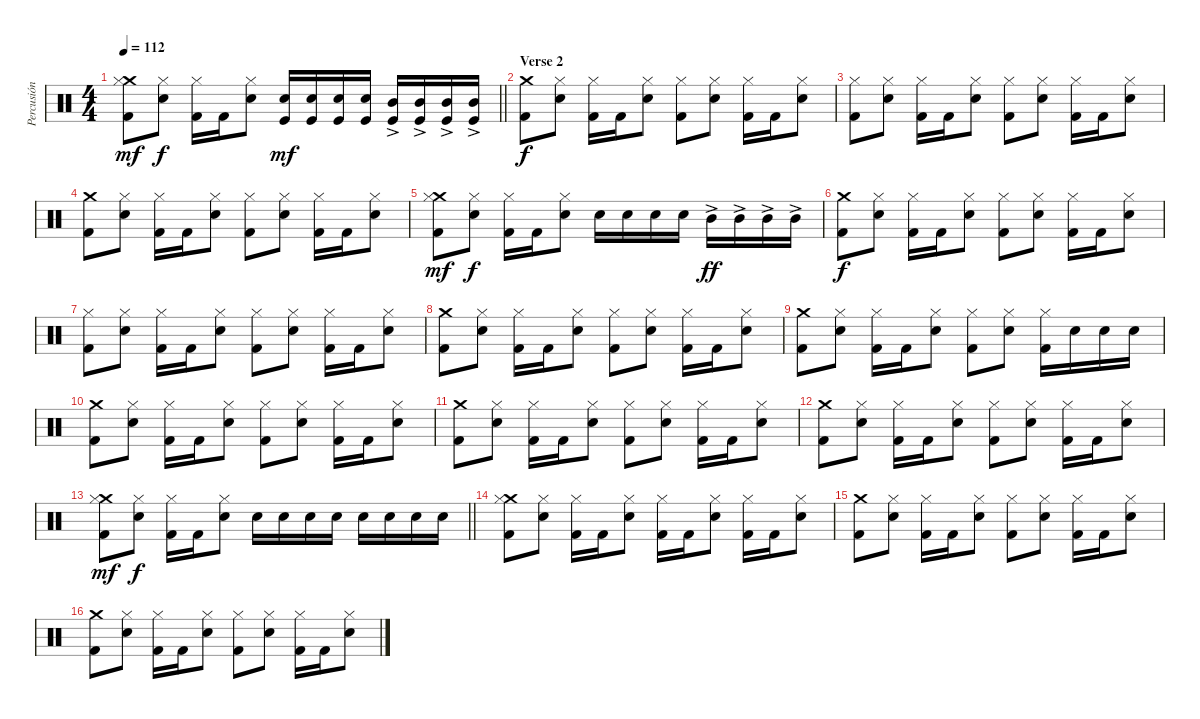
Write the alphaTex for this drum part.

\track ("Percusión" "Percusión") {instrument percussion}
\staff {score}
\articulation defaults
\ts (4 4)
\tempo 112
\clef neutral
\barLineRight lightlight
\ks c
("Crash medium (hit)" "Hi-Hat (closed)" "Kick (hit) 2").8{dy mf} ("Hi-Hat (closed)" "Electric Snare (hit)").8{dy f} ("Hi-Hat (closed)" "Kick (hit) 2").16 "Kick (hit) 2".16 ("Hi-Hat (closed)" "Electric Snare (hit)").8 ("Electric Snare (hit)" "Kick (hit)").16{dy mf} ("Electric Snare (hit)" "Kick (hit)").16 ("Electric Snare (hit)" "Kick (hit)").16 ("Electric Snare (hit)" "Kick (hit)").16 ("Mid Tom (hit)"{ac} "Kick (hit)").16 ("Mid Tom (hit)"{ac} "Kick (hit)").16 ("Mid Tom (hit)"{ac} "Kick (hit)").16 ("Mid Tom (hit)"{ac} "Kick (hit)").16 |
\section ("" "Verse 2")
("Crash medium (hit)" "Kick (hit) 2").8{dy f} ("Hi-Hat (closed)" "Electric Snare (hit)").8 ("Hi-Hat (closed)" "Kick (hit) 2").16 "Kick (hit) 2".16 ("Hi-Hat (closed)" "Electric Snare (hit)").8 ("Hi-Hat (closed)" "Kick (hit) 2").8 ("Hi-Hat (closed)" "Electric Snare (hit)").8 ("Hi-Hat (closed)" "Kick (hit) 2").16 "Kick (hit) 2".16 ("Hi-Hat (closed)" "Electric Snare (hit)").8 |
("Hi-Hat (closed)" "Kick (hit) 2").8 ("Hi-Hat (closed)" "Electric Snare (hit)").8 ("Hi-Hat (closed)" "Kick (hit) 2").16 "Kick (hit) 2".16 ("Hi-Hat (closed)" "Electric Snare (hit)").8 ("Hi-Hat (closed)" "Kick (hit) 2").8 ("Hi-Hat (closed)" "Electric Snare (hit)").8 ("Hi-Hat (closed)" "Kick (hit) 2").16 "Kick (hit) 2".16 ("Hi-Hat (closed)" "Electric Snare (hit)").8 |
("Crash medium (hit)" "Kick (hit) 2").8 ("Hi-Hat (closed)" "Electric Snare (hit)").8 ("Hi-Hat (closed)" "Kick (hit) 2").16 "Kick (hit) 2".16 ("Hi-Hat (closed)" "Electric Snare (hit)").8 ("Hi-Hat (closed)" "Kick (hit) 2").8 ("Hi-Hat (closed)" "Electric Snare (hit)").8 ("Hi-Hat (closed)" "Kick (hit) 2").16 "Kick (hit) 2".16 ("Hi-Hat (closed)" "Electric Snare (hit)").8 |
("Crash medium (hit)" "Hi-Hat (closed)" "Kick (hit) 2").8{dy mf} ("Hi-Hat (closed)" "Electric Snare (hit)").8{dy f} ("Hi-Hat (closed)" "Kick (hit) 2").16 "Kick (hit) 2".16 ("Hi-Hat (closed)" "Electric Snare (hit)").8 "Electric Snare (hit)".16 "Electric Snare (hit)".16 "Electric Snare (hit)".16 "Electric Snare (hit)".16 "Mid Tom (hit)"{ac}.16{dy ff} "Mid Tom (hit)"{ac}.16 "Mid Tom (hit)"{ac}.16 "Mid Tom (hit)"{ac}.16 |
("Crash medium (hit)" "Kick (hit) 2").8{dy f} ("Hi-Hat (closed)" "Electric Snare (hit)").8 ("Hi-Hat (closed)" "Kick (hit) 2").16 "Kick (hit) 2".16 ("Hi-Hat (closed)" "Electric Snare (hit)").8 ("Hi-Hat (closed)" "Kick (hit) 2").8 ("Hi-Hat (closed)" "Electric Snare (hit)").8 ("Hi-Hat (closed)" "Kick (hit) 2").16 "Kick (hit) 2".16 ("Hi-Hat (closed)" "Electric Snare (hit)").8 |
("Hi-Hat (closed)" "Kick (hit) 2").8 ("Hi-Hat (closed)" "Electric Snare (hit)").8 ("Hi-Hat (closed)" "Kick (hit) 2").16 "Kick (hit) 2".16 ("Hi-Hat (closed)" "Electric Snare (hit)").8 ("Hi-Hat (closed)" "Kick (hit) 2").8 ("Hi-Hat (closed)" "Electric Snare (hit)").8 ("Hi-Hat (closed)" "Kick (hit) 2").16 "Kick (hit) 2".16 ("Hi-Hat (closed)" "Electric Snare (hit)").8 |
("Crash medium (hit)" "Kick (hit) 2").8 ("Hi-Hat (closed)" "Electric Snare (hit)").8 ("Hi-Hat (closed)" "Kick (hit) 2").16 "Kick (hit) 2".16 ("Hi-Hat (closed)" "Electric Snare (hit)").8 ("Hi-Hat (closed)" "Kick (hit) 2").8 ("Hi-Hat (closed)" "Electric Snare (hit)").8 ("Hi-Hat (closed)" "Kick (hit) 2").16 "Kick (hit) 2".16 ("Hi-Hat (closed)" "Electric Snare (hit)").8 |
("Crash medium (hit)" "Kick (hit) 2").8 ("Hi-Hat (closed)" "Electric Snare (hit)").8 ("Hi-Hat (closed)" "Kick (hit) 2").16 "Kick (hit) 2".16 ("Hi-Hat (closed)" "Electric Snare (hit)").8 ("Hi-Hat (closed)" "Kick (hit) 2").8 ("Hi-Hat (closed)" "Electric Snare (hit)").8 ("Hi-Hat (closed)" "Kick (hit) 2").16 "Electric Snare (hit)".16 "Electric Snare (hit)".16 "Electric Snare (hit)".16 |
("Crash medium (hit)" "Kick (hit) 2").8 ("Hi-Hat (closed)" "Electric Snare (hit)").8 ("Hi-Hat (closed)" "Kick (hit) 2").16 "Kick (hit) 2".16 ("Hi-Hat (closed)" "Electric Snare (hit)").8 ("Hi-Hat (closed)" "Kick (hit) 2").8 ("Hi-Hat (closed)" "Electric Snare (hit)").8 ("Hi-Hat (closed)" "Kick (hit) 2").16 "Kick (hit) 2".16 ("Hi-Hat (closed)" "Electric Snare (hit)").8 |
("Crash medium (hit)" "Kick (hit) 2").8 ("Hi-Hat (closed)" "Electric Snare (hit)").8 ("Hi-Hat (closed)" "Kick (hit) 2").16 "Kick (hit) 2".16 ("Hi-Hat (closed)" "Electric Snare (hit)").8 ("Hi-Hat (closed)" "Kick (hit) 2").8 ("Hi-Hat (closed)" "Electric Snare (hit)").8 ("Hi-Hat (closed)" "Kick (hit) 2").16 "Kick (hit) 2".16 ("Hi-Hat (closed)" "Electric Snare (hit)").8 |
("Crash medium (hit)" "Kick (hit) 2").8 ("Hi-Hat (closed)" "Electric Snare (hit)").8 ("Hi-Hat (closed)" "Kick (hit) 2").16 "Kick (hit) 2".16 ("Hi-Hat (closed)" "Electric Snare (hit)").8 ("Hi-Hat (closed)" "Kick (hit) 2").8 ("Hi-Hat (closed)" "Electric Snare (hit)").8 ("Hi-Hat (closed)" "Kick (hit) 2").16 "Kick (hit) 2".16 ("Hi-Hat (closed)" "Electric Snare (hit)").8 |
\barLineRight lightlight
("Crash medium (hit)" "Hi-Hat (closed)" "Kick (hit) 2").8{dy mf} ("Hi-Hat (closed)" "Electric Snare (hit)").8{dy f} ("Hi-Hat (closed)" "Kick (hit) 2").16 "Kick (hit) 2".16 ("Hi-Hat (closed)" "Electric Snare (hit)").8 "Electric Snare (hit)".16 "Electric Snare (hit)".16 "Electric Snare (hit)".16 "Electric Snare (hit)".16 "Electric Snare (hit)".16 "Electric Snare (hit)".16 "Electric Snare (hit)".16 "Electric Snare (hit)".16 |
\section ("" "")
("Crash medium (hit)" "Hi-Hat (closed)" "Kick (hit) 2").8 ("Hi-Hat (closed)" "Electric Snare (hit)").8 ("Hi-Hat (closed)" "Kick (hit) 2").16 "Kick (hit) 2".16 ("Hi-Hat (closed)" "Electric Snare (hit)").8 ("Hi-Hat (closed)" "Kick (hit) 2").16 "Kick (hit) 2".16 ("Hi-Hat (closed)" "Electric Snare (hit)").8 ("Hi-Hat (closed)" "Kick (hit) 2").16 "Kick (hit) 2".16 ("Hi-Hat (closed)" "Electric Snare (hit)").8 |
("Crash medium (hit)" "Kick (hit) 2").8 ("Hi-Hat (closed)" "Electric Snare (hit)").8 ("Hi-Hat (closed)" "Kick (hit) 2").16 "Kick (hit) 2".16 ("Hi-Hat (closed)" "Electric Snare (hit)").8 ("Hi-Hat (closed)" "Kick (hit) 2").8 ("Hi-Hat (closed)" "Electric Snare (hit)").8 ("Hi-Hat (closed)" "Kick (hit) 2").16 "Kick (hit) 2".16 ("Hi-Hat (closed)" "Electric Snare (hit)").8 |
("Crash medium (hit)" "Kick (hit) 2").8 ("Hi-Hat (closed)" "Electric Snare (hit)").8 ("Hi-Hat (closed)" "Kick (hit) 2").16 "Kick (hit) 2".16 ("Hi-Hat (closed)" "Electric Snare (hit)").8 ("Hi-Hat (closed)" "Kick (hit) 2").8 ("Hi-Hat (closed)" "Electric Snare (hit)").8 ("Hi-Hat (closed)" "Kick (hit) 2").16 "Kick (hit) 2".16 ("Hi-Hat (closed)" "Electric Snare (hit)").8
